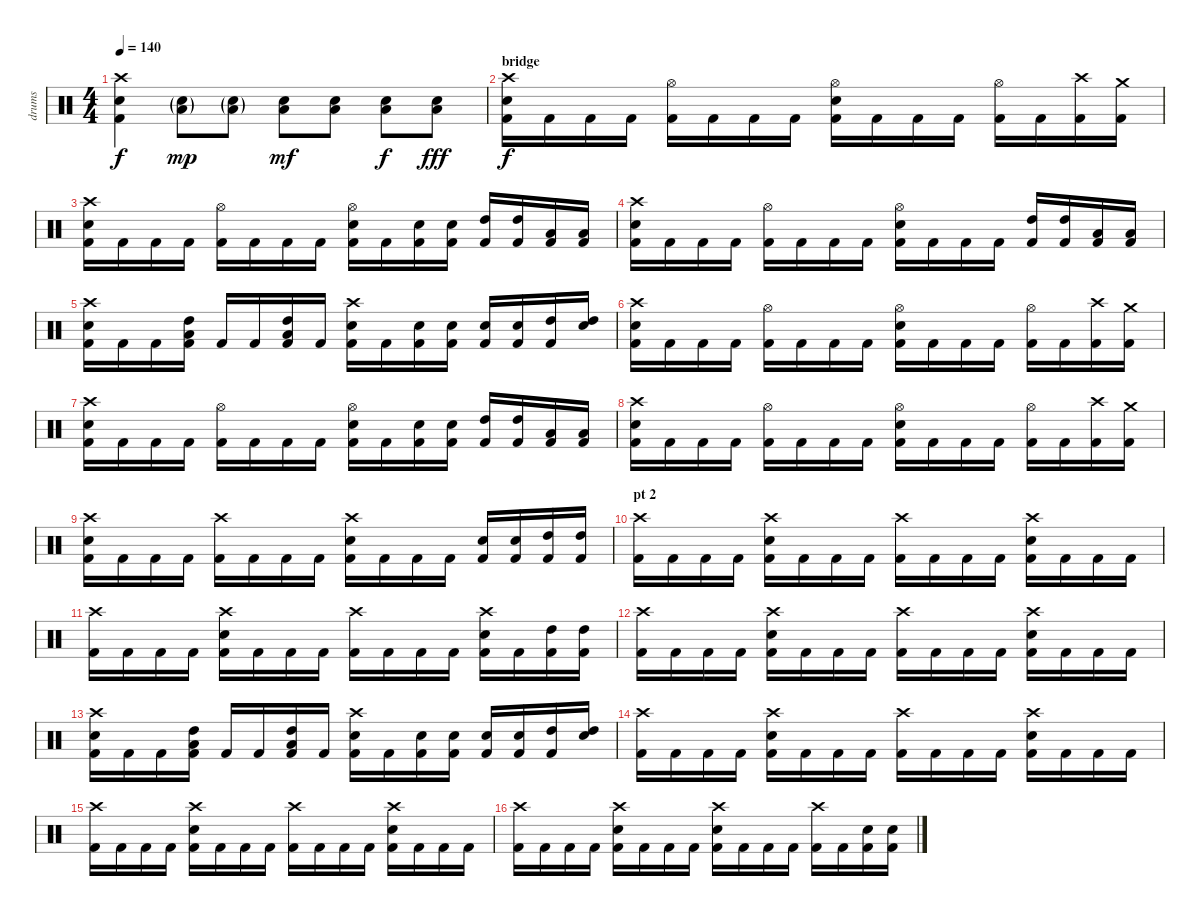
\track ("drums" "drums") {instrument percussion}
\staff {score}
\articulation defaults
\ts (4 4)
\tempo 140
\clef neutral
\ks c
("Crash high (hit)" "Electric Snare (hit)" "Kick (hit) 2").4{dy f} ("Electric Snare (hit)"{g} "Low Floor Tom (hit)"{g}).8{dy mp} ("Electric Snare (hit)"{g} "Low Floor Tom (hit)"{g}).8 ("Electric Snare (hit)" "Low Floor Tom (hit)").8{dy mf} ("Electric Snare (hit)" "Low Floor Tom (hit)").8 ("Electric Snare (hit)" "Low Floor Tom (hit)").8{dy f} ("Electric Snare (hit)" "Low Floor Tom (hit)").8{dy fff} |
\section ("" "bridge")
("Crash high (hit)" "Electric Snare (hit)" "Kick (hit) 2").16{dy f} "Kick (hit) 2".16 "Kick (hit) 2".16 "Kick (hit) 2".16 ("Hi-Hat (open)" "Kick (hit) 2").16 "Kick (hit) 2".16 "Kick (hit) 2".16 "Kick (hit) 2".16 ("Hi-Hat (open)" "Electric Snare (hit)" "Kick (hit) 2").16 "Kick (hit) 2".16 "Kick (hit) 2".16 "Kick (hit) 2".16 ("Hi-Hat (open)" "Kick (hit) 2").16 "Kick (hit) 2".16 ("Crash high (hit)" "Kick (hit) 2").16 ("Crash medium (hit)" "Kick (hit) 2").16 |
("Crash high (hit)" "Electric Snare (hit)" "Kick (hit) 2").16 "Kick (hit) 2".16 "Kick (hit) 2".16 "Kick (hit) 2".16 ("Hi-Hat (open)" "Kick (hit) 2").16 "Kick (hit) 2".16 "Kick (hit) 2".16 "Kick (hit) 2".16 ("Hi-Hat (open)" "Electric Snare (hit)" "Kick (hit) 2").16 "Kick (hit) 2".16 ("Electric Snare (hit)" "Kick (hit) 2").16 ("Electric Snare (hit)" "Kick (hit) 2").16 ("High Tom (hit)" "Kick (hit) 2").16 ("High Tom (hit)" "Kick (hit) 2").16 ("Low Tom (hit)" "Kick (hit) 2").16 ("Low Tom (hit)" "Kick (hit) 2").16 |
("Crash high (hit)" "Electric Snare (hit)" "Kick (hit) 2").16 "Kick (hit) 2".16 "Kick (hit) 2".16 "Kick (hit) 2".16 ("Hi-Hat (open)" "Kick (hit) 2").16 "Kick (hit) 2".16 "Kick (hit) 2".16 "Kick (hit) 2".16 ("Hi-Hat (open)" "Electric Snare (hit)" "Kick (hit) 2").16 "Kick (hit) 2".16 "Kick (hit) 2".16 "Kick (hit) 2".16 ("High Tom (hit)" "Kick (hit) 2").16 ("High Tom (hit)" "Kick (hit) 2").16 ("Low Tom (hit)" "Kick (hit) 2").16 ("Low Tom (hit)" "Kick (hit) 2").16 |
("Crash high (hit)" "Electric Snare (hit)" "Kick (hit) 2").16 "Kick (hit) 2".16 "Kick (hit) 2".16 ("High Tom (hit)" "Low Floor Tom (hit)" "Kick (hit) 2").16 "Kick (hit) 2".16 "Kick (hit) 2".16 ("High Tom (hit)" "Low Floor Tom (hit)" "Kick (hit) 2").16 "Kick (hit) 2".16 ("Crash high (hit)" "Electric Snare (hit)" "Kick (hit) 2").16 "Kick (hit) 2".16 ("Electric Snare (hit)" "Kick (hit) 2").16 ("Electric Snare (hit)" "Kick (hit) 2").16 ("Electric Snare (hit)" "Kick (hit) 2").16 ("Electric Snare (hit)" "Kick (hit) 2").16 ("High Tom (hit)" "Kick (hit) 2").16 ("High Tom (hit)" "Snare (hit) 2").16 |
("Crash high (hit)" "Electric Snare (hit)" "Kick (hit) 2").16 "Kick (hit) 2".16 "Kick (hit) 2".16 "Kick (hit) 2".16 ("Hi-Hat (open)" "Kick (hit) 2").16 "Kick (hit) 2".16 "Kick (hit) 2".16 "Kick (hit) 2".16 ("Hi-Hat (open)" "Electric Snare (hit)" "Kick (hit) 2").16 "Kick (hit) 2".16 "Kick (hit) 2".16 "Kick (hit) 2".16 ("Hi-Hat (open)" "Kick (hit) 2").16 "Kick (hit) 2".16 ("Crash high (hit)" "Kick (hit) 2").16 ("Crash medium (hit)" "Kick (hit) 2").16 |
("Crash high (hit)" "Electric Snare (hit)" "Kick (hit) 2").16 "Kick (hit) 2".16 "Kick (hit) 2".16 "Kick (hit) 2".16 ("Hi-Hat (open)" "Kick (hit) 2").16 "Kick (hit) 2".16 "Kick (hit) 2".16 "Kick (hit) 2".16 ("Hi-Hat (open)" "Electric Snare (hit)" "Kick (hit) 2").16 "Kick (hit) 2".16 ("Electric Snare (hit)" "Kick (hit) 2").16 ("Electric Snare (hit)" "Kick (hit) 2").16 ("High Tom (hit)" "Kick (hit) 2").16 ("High Tom (hit)" "Kick (hit) 2").16 ("Low Tom (hit)" "Kick (hit) 2").16 ("Low Tom (hit)" "Kick (hit) 2").16 |
("Crash high (hit)" "Electric Snare (hit)" "Kick (hit) 2").16 "Kick (hit) 2".16 "Kick (hit) 2".16 "Kick (hit) 2".16 ("Hi-Hat (open)" "Kick (hit) 2").16 "Kick (hit) 2".16 "Kick (hit) 2".16 "Kick (hit) 2".16 ("Hi-Hat (open)" "Electric Snare (hit)" "Kick (hit) 2").16 "Kick (hit) 2".16 "Kick (hit) 2".16 "Kick (hit) 2".16 ("Hi-Hat (open)" "Kick (hit) 2").16 "Kick (hit) 2".16 ("Crash high (hit)" "Kick (hit) 2").16 ("Crash medium (hit)" "Kick (hit) 2").16 |
("Crash high (hit)" "Electric Snare (hit)" "Kick (hit) 2").16 "Kick (hit) 2".16 "Kick (hit) 2".16 "Kick (hit) 2".16 ("Crash high (hit)" "Kick (hit) 2").16 "Kick (hit) 2".16 "Kick (hit) 2".16 "Kick (hit) 2".16 ("Crash high (hit)" "Electric Snare (hit)" "Kick (hit) 2").16 "Kick (hit) 2".16 "Kick (hit) 2".16 "Kick (hit) 2".16 ("Electric Snare (hit)" "Kick (hit) 2").16 ("Electric Snare (hit)" "Kick (hit) 2").16 ("High Tom (hit)" "Kick (hit) 2").16 ("High Tom (hit)" "Kick (hit) 2").16 |
\section ("" "pt 2")
("Crash high (hit)" "Kick (hit) 2").16 "Kick (hit) 2".16 "Kick (hit) 2".16 "Kick (hit) 2".16 ("Crash high (hit)" "Electric Snare (hit)" "Kick (hit) 2").16 "Kick (hit) 2".16 "Kick (hit) 2".16 "Kick (hit) 2".16 ("Crash high (hit)" "Kick (hit) 2").16 "Kick (hit) 2".16 "Kick (hit) 2".16 "Kick (hit) 2".16 ("Crash high (hit)" "Electric Snare (hit)" "Kick (hit) 2").16 "Kick (hit) 2".16 "Kick (hit) 2".16 "Kick (hit) 2".16 |
("Crash high (hit)" "Kick (hit) 2").16 "Kick (hit) 2".16 "Kick (hit) 2".16 "Kick (hit) 2".16 ("Crash high (hit)" "Electric Snare (hit)" "Kick (hit) 2").16 "Kick (hit) 2".16 "Kick (hit) 2".16 "Kick (hit) 2".16 ("Crash high (hit)" "Kick (hit) 2").16 "Kick (hit) 2".16 "Kick (hit) 2".16 "Kick (hit) 2".16 ("Crash high (hit)" "Electric Snare (hit)" "Kick (hit) 2").16 "Kick (hit) 2".16 ("High Tom (hit)" "Kick (hit) 2").16 ("High Tom (hit)" "Kick (hit) 2").16 |
("Crash high (hit)" "Kick (hit) 2").16 "Kick (hit) 2".16 "Kick (hit) 2".16 "Kick (hit) 2".16 ("Crash high (hit)" "Electric Snare (hit)" "Kick (hit) 2").16 "Kick (hit) 2".16 "Kick (hit) 2".16 "Kick (hit) 2".16 ("Crash high (hit)" "Kick (hit) 2").16 "Kick (hit) 2".16 "Kick (hit) 2".16 "Kick (hit) 2".16 ("Crash high (hit)" "Electric Snare (hit)" "Kick (hit) 2").16 "Kick (hit) 2".16 "Kick (hit) 2".16 "Kick (hit) 2".16 |
("Crash high (hit)" "Electric Snare (hit)" "Kick (hit) 2").16 "Kick (hit) 2".16 "Kick (hit) 2".16 ("High Tom (hit)" "Low Floor Tom (hit)" "Kick (hit) 2").16 "Kick (hit) 2".16 "Kick (hit) 2".16 ("High Tom (hit)" "Low Floor Tom (hit)" "Kick (hit) 2").16 "Kick (hit) 2".16 ("Crash high (hit)" "Electric Snare (hit)" "Kick (hit) 2").16 "Kick (hit) 2".16 ("Electric Snare (hit)" "Kick (hit) 2").16 ("Electric Snare (hit)" "Kick (hit) 2").16 ("Electric Snare (hit)" "Kick (hit) 2").16 ("Electric Snare (hit)" "Kick (hit) 2").16 ("High Tom (hit)" "Kick (hit) 2").16 ("High Tom (hit)" "Snare (hit) 2").16 |
("Crash high (hit)" "Kick (hit) 2").16 "Kick (hit) 2".16 "Kick (hit) 2".16 "Kick (hit) 2".16 ("Crash high (hit)" "Electric Snare (hit)" "Kick (hit) 2").16 "Kick (hit) 2".16 "Kick (hit) 2".16 "Kick (hit) 2".16 ("Crash high (hit)" "Kick (hit) 2").16 "Kick (hit) 2".16 "Kick (hit) 2".16 "Kick (hit) 2".16 ("Crash high (hit)" "Electric Snare (hit)" "Kick (hit) 2").16 "Kick (hit) 2".16 "Kick (hit) 2".16 "Kick (hit) 2".16 |
("Crash high (hit)" "Kick (hit) 2").16 "Kick (hit) 2".16 "Kick (hit) 2".16 "Kick (hit) 2".16 ("Crash high (hit)" "Electric Snare (hit)" "Kick (hit) 2").16 "Kick (hit) 2".16 "Kick (hit) 2".16 "Kick (hit) 2".16 ("Crash high (hit)" "Kick (hit) 2").16 "Kick (hit) 2".16 "Kick (hit) 2".16 "Kick (hit) 2".16 ("Crash high (hit)" "Electric Snare (hit)" "Kick (hit) 2").16 "Kick (hit) 2".16 "Kick (hit) 2".16 "Kick (hit) 2".16 |
("Crash high (hit)" "Kick (hit) 2").16 "Kick (hit) 2".16 "Kick (hit) 2".16 "Kick (hit) 2".16 ("Crash high (hit)" "Electric Snare (hit)" "Kick (hit) 2").16 "Kick (hit) 2".16 "Kick (hit) 2".16 "Kick (hit) 2".16 ("Crash high (hit)" "Electric Snare (hit)" "Kick (hit) 2").16 "Kick (hit) 2".16 "Kick (hit) 2".16 "Kick (hit) 2".16 ("Crash high (hit)" "Kick (hit) 2").16 "Kick (hit) 2".16 ("Electric Snare (hit)" "Kick (hit) 2").16 ("Electric Snare (hit)" "Kick (hit) 2").16
